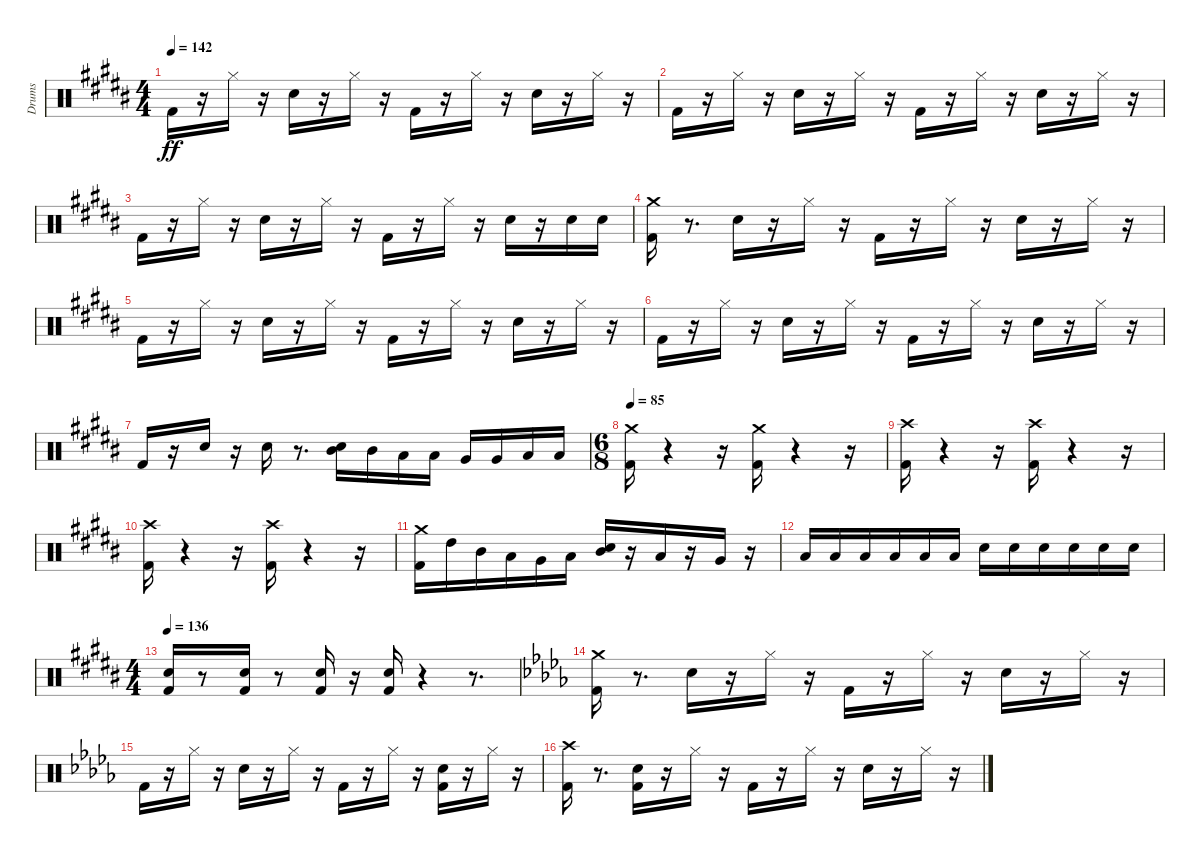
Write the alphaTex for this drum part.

\track ("Drums" "Drums") {instrument percussion}
\staff {score}
\articulation defaults
\ts (4 4)
\tempo 142
\clef neutral
\ks g#minor "Kick (hit) 2".16{dy ff}
r.16 "Hi-Hat (closed)".16 r.16 "Electric Snare (hit)".16 r.16 "Hi-Hat (closed)".16 r.16 "Kick (hit) 2".16 r.16 "Hi-Hat (closed)".16 r.16 "Electric Snare (hit)".16 r.16 "Hi-Hat (closed)".16 r.16 |
"Kick (hit) 2".16 r.16 "Hi-Hat (closed)".16 r.16 "Electric Snare (hit)".16 r.16 "Hi-Hat (closed)".16 r.16 "Kick (hit) 2".16 r.16 "Hi-Hat (closed)".16 r.16 "Electric Snare (hit)".16 r.16 "Hi-Hat (closed)".16 r.16 |
"Kick (hit) 2".16 r.16 "Hi-Hat (closed)".16 r.16 "Electric Snare (hit)".16 r.16 "Hi-Hat (closed)".16 r.16 "Kick (hit) 2".16 r.16 "Hi-Hat (closed)".16 r.16 "Electric Snare (hit)".16 r.16 "Electric Snare (hit)".16 "Electric Snare (hit)".16 |
("Kick (hit) 2" "Crash medium (hit)").16 r.8{d} "Electric Snare (hit)".16 r.16 "Hi-Hat (closed)".16 r.16 "Kick (hit) 2".16 r.16 "Hi-Hat (closed)".16 r.16 "Electric Snare (hit)".16 r.16 "Hi-Hat (closed)".16 r.16 |
"Kick (hit) 2".16 r.16 "Hi-Hat (closed)".16 r.16 "Electric Snare (hit)".16 r.16 "Hi-Hat (closed)".16 r.16 "Kick (hit) 2".16 r.16 "Hi-Hat (closed)".16 r.16 "Electric Snare (hit)".16 r.16 "Hi-Hat (closed)".16 r.16 |
"Kick (hit) 2".16 r.16 "Hi-Hat (closed)".16 r.16 "Electric Snare (hit)".16 r.16 "Hi-Hat (closed)".16 r.16 "Kick (hit) 2".16 r.16 "Hi-Hat (closed)".16 r.16 "Electric Snare (hit)".16 r.16 "Hi-Hat (closed)".16 r.16 |
"Kick (hit) 2".16 r.16 "Electric Snare (hit)".16 r.16 "Electric Snare (hit)".16 r.8{d} ("Electric Snare (hit)" "Mid Tom (hit)").16 "Mid Tom (hit)".16 "Low Tom (hit)".16 "Low Tom (hit)".16 "Very Low Tom (hit)".16 "Very Low Tom (hit)".16 "Low Floor Tom (hit)".16 "Low Floor Tom (hit)".16 |
\ts (6 8)
\tempo 85
("Kick (hit) 2" "Crash medium (hit)").16 r.4 r.16 ("Kick (hit) 2" "Crash medium (hit)").16 r.4 r.16 |
("Kick (hit) 2" "Crash high (hit)").16 r.4 r.16 ("Kick (hit) 2" "Crash high (hit)").16 r.4 r.16 |
("Kick (hit) 2" "Crash high (hit)").16 r.4 r.16 ("Kick (hit) 2" "Crash high (hit)").16 r.4 r.16 |
("Kick (hit) 2" "Crash medium (hit)").16 "High Tom (hit)".16 "Mid Tom (hit)".16 "Low Tom (hit)".16 "Very Low Tom (hit)".16 "Low Floor Tom (hit)".16 ("Electric Snare (hit)" "Mid Tom (hit)").16 r.16 "Low Tom (hit)".16 r.16 "Very Low Tom (hit)".16 r.16 |
"Low Tom (hit)".16 "Low Tom (hit)".16 "Low Tom (hit)".16 "Low Tom (hit)".16 "Low Tom (hit)".16 "Low Tom (hit)".16 "Electric Snare (hit)".16 "Electric Snare (hit)".16 "Electric Snare (hit)".16 "Electric Snare (hit)".16 "Electric Snare (hit)".16 "Electric Snare (hit)".16 |
\ts (4 4)
\tempo 136
("Kick (hit) 2" "Electric Snare (hit)").16 r.8 ("Kick (hit) 2" "Electric Snare (hit)").16 r.8 ("Kick (hit) 2" "Electric Snare (hit)").16 r.16 ("Kick (hit) 2" "Electric Snare (hit)").16 r.4 r.8{d} |
\ks db
("Kick (hit) 2" "Crash medium (hit)").16 r.8{d} "Electric Snare (hit)".16 r.16 "Hi-Hat (closed)".16 r.16 "Kick (hit) 2".16 r.16 "Hi-Hat (closed)".16 r.16 "Electric Snare (hit)".16 r.16 "Hi-Hat (closed)".16 r.16 |
"Kick (hit) 2".16 r.16 "Hi-Hat (closed)".16 r.16 "Electric Snare (hit)".16 r.16 "Hi-Hat (closed)".16 r.16 "Kick (hit) 2".16 r.16 "Hi-Hat (closed)".16 r.16 ("Kick (hit) 2" "Electric Snare (hit)").16 r.16 "Hi-Hat (closed)".16 r.16 |
("Kick (hit) 2" "Crash high (hit)").16 r.8{d} ("Kick (hit) 2" "Electric Snare (hit)").16 r.16 "Hi-Hat (closed)".16 r.16 "Kick (hit) 2".16 r.16 "Hi-Hat (closed)".16 r.16 "Electric Snare (hit)".16 r.16 "Hi-Hat (closed)".16 r.16
